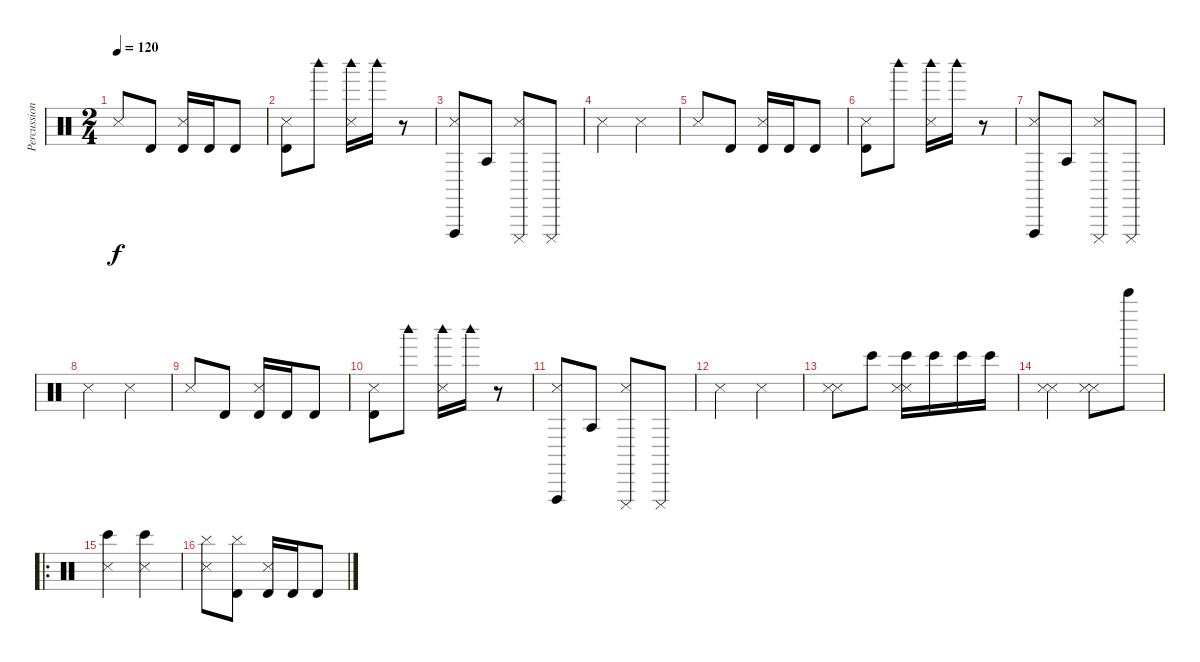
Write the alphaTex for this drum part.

\track ("Percussion" "Percussion") {instrument percussion}
\staff {score}
\articulation defaults
\ts (2 4)
\tempo 120
\clef neutral
\ks aminor "Snare (side stick) 3".8{dy f} "Timbale high (hit)".8
("Timbale high (hit)" "Snare (side stick) 3").16 "Timbale high (hit)".16 "Timbale high (hit)".8 |
("Timbale high (hit)" "Snare (side stick) 3").8 "Woodblock high (hit)".8 ("Snare (side stick) 3" "Woodblock high (hit)").16 "Woodblock high (hit)".16 r.8 |
("Vibraslap (hit)" "Snare (side stick) 3").8 "Agogo tow (hit)".8 ("Cuica (mute)" "Snare (side stick) 3").8 "Cuica (mute)".8 |
"Snare (side stick) 3".4 "Snare (side stick) 3".4 |
"Snare (side stick) 3".8 "Timbale high (hit)".8 ("Timbale high (hit)" "Snare (side stick) 3").16 "Timbale high (hit)".16 "Timbale high (hit)".8 |
("Timbale high (hit)" "Snare (side stick) 3").8 "Woodblock high (hit)".8 ("Snare (side stick) 3" "Woodblock high (hit)").16 "Woodblock high (hit)".16 r.8 |
("Vibraslap (hit)" "Snare (side stick) 3").8 "Agogo tow (hit)".8 ("Cuica (mute)" "Snare (side stick) 3").8 "Cuica (mute)".8 |
"Snare (side stick) 3".4 "Snare (side stick) 3".4 |
"Snare (side stick) 3".8 "Timbale high (hit)".8 ("Timbale high (hit)" "Snare (side stick) 3").16 "Timbale high (hit)".16 "Timbale high (hit)".8 |
("Timbale high (hit)" "Snare (side stick) 3").8 "Woodblock high (hit)".8 ("Snare (side stick) 3" "Woodblock high (hit)").16 "Woodblock high (hit)".16 r.8 |
("Vibraslap (hit)" "Snare (side stick) 3").8 "Agogo tow (hit)".8 ("Cuica (mute)" "Snare (side stick) 3").8 "Cuica (mute)".8 |
"Snare (side stick) 3".4 "Snare (side stick) 3".4 |
("Snare (side stick) 3" "Snare (side stick) 3").8 "Bongo High (hit)".8 ("Bongo High (hit)" "Snare (side stick) 3" "Snare (side stick) 3").16 "Bongo High (hit)".16 "Bongo High (hit)".16 "Bongo High (hit)".16 |
("Snare (side stick) 3" "Snare (side stick) 3").4 ("Snare (side stick) 3" "Snare (side stick) 3").8 "Bell Tree (hit)".8 |
\ro
("Bongo High (hit)" "Snare (side stick) 3").4 ("Bongo High (hit)" "Snare (side stick) 3").4 |
("Cymbal (hit)" "Snare (side stick) 3").8 ("Cymbal (hit)" "Timbale high (hit)").8 ("Timbale high (hit)" "Snare (side stick) 3").16 "Timbale high (hit)".16 "Timbale high (hit)".8
